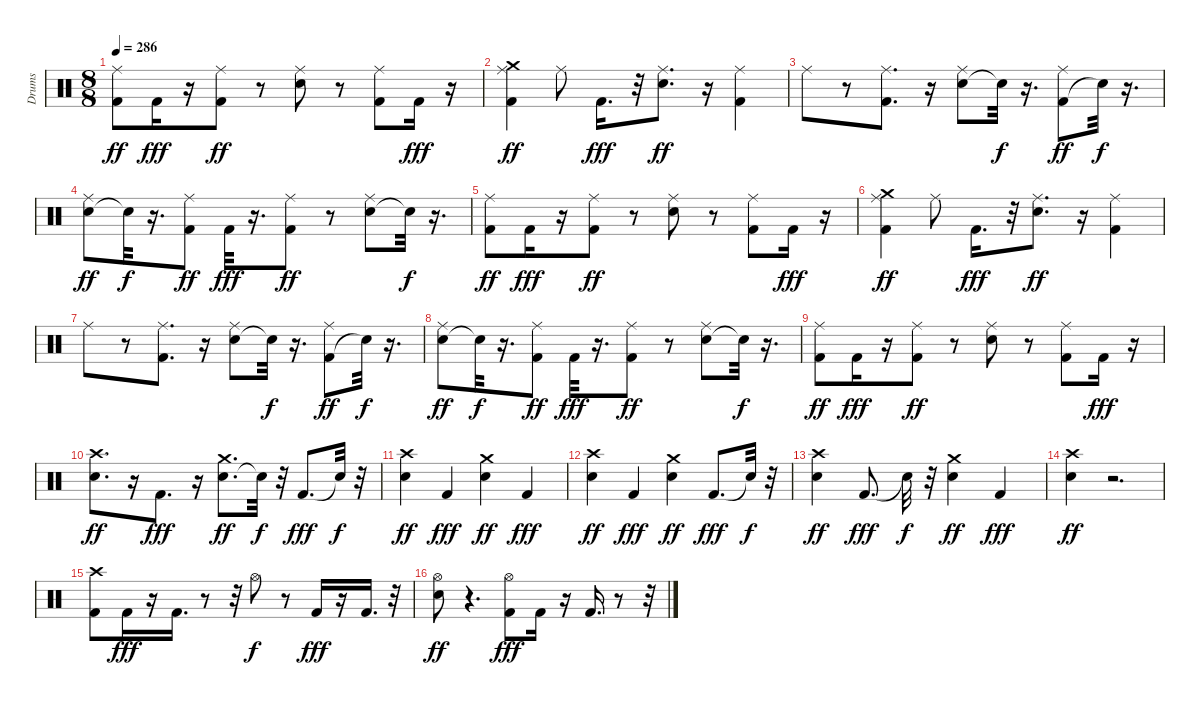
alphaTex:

\track ("Drums" "Drums") {instrument percussion}
\staff {score}
\articulation defaults
\ts (8 8)
\tempo 286
\clef neutral
\ks c
("Kick (hit) 2" "Ride (middle)").8{dy ff} "Kick (hit) 2".16{dy fff} r.16 ("Kick (hit) 2" "Ride (middle)").8{dy ff} r.8 ("Snare (hit) 2" "Ride (middle)").8 r.8 ("Kick (hit) 2" "Ride (middle)").8 "Kick (hit) 2".16{dy fff} r.16 |
("Kick (hit) 2" "Ride (middle)" "Crash medium (hit)").4{dy ff} "Ride (middle)".8 "Kick (hit) 2".16{d dy fff} r.32 ("Snare (hit) 2" "Ride (middle)").8{d dy ff} r.16 ("Kick (hit) 2" "Ride (middle)").4 |
"Ride (middle)".8 r.8 ("Kick (hit) 2" "Ride (middle)").8{d} r.16 ("Snare (hit) 2" "Ride (middle)").8 "Snare (hit)"{t}.32{dy f} r.16{d} ("Kick (hit) 2" "Ride (middle)").8{dy ff} "Snare (hit)"{t}.32{dy f} r.16{d} |
("Snare (hit) 2" "Ride (middle)").8{dy ff} "Snare (hit)"{t}.32{dy f} r.16{d} ("Kick (hit) 2" "Ride (middle)").8{dy ff} "Kick (hit) 2".32{dy fff} r.16{d} ("Kick (hit) 2" "Ride (middle)").8{dy ff} r.8 ("Snare (hit) 2" "Ride (middle)").8 "Snare (hit)"{t}.32{dy f} r.16{d} |
("Kick (hit) 2" "Ride (middle)").8{dy ff} "Kick (hit) 2".16{dy fff} r.16 ("Kick (hit) 2" "Ride (middle)").8{dy ff} r.8 ("Snare (hit) 2" "Ride (middle)").8 r.8 ("Kick (hit) 2" "Ride (middle)").8 "Kick (hit) 2".16{dy fff} r.16 |
("Kick (hit) 2" "Ride (middle)" "Crash medium (hit)").4{dy ff} "Ride (middle)".8 "Kick (hit) 2".16{d dy fff} r.32 ("Snare (hit) 2" "Ride (middle)").8{d dy ff} r.16 ("Kick (hit) 2" "Ride (middle)").4 |
"Ride (middle)".8 r.8 ("Kick (hit) 2" "Ride (middle)").8{d} r.16 ("Snare (hit) 2" "Ride (middle)").8 "Snare (hit)"{t}.32{dy f} r.16{d} ("Kick (hit) 2" "Ride (middle)").8{dy ff} "Snare (hit)"{t}.32{dy f} r.16{d} |
("Snare (hit) 2" "Ride (middle)").8{dy ff} "Snare (hit)"{t}.32{dy f} r.16{d} ("Kick (hit) 2" "Ride (middle)").8{dy ff} "Kick (hit) 2".32{dy fff} r.16{d} ("Kick (hit) 2" "Ride (middle)").8{dy ff} r.8 ("Snare (hit) 2" "Ride (middle)").8 "Snare (hit)"{t}.32{dy f} r.16{d} |
("Kick (hit) 2" "Ride (middle)").8{dy ff} "Kick (hit) 2".16{dy fff} r.16 ("Kick (hit) 2" "Ride (middle)").8{dy ff} r.8 ("Snare (hit) 2" "Ride (middle)").8 r.8 ("Kick (hit) 2" "Ride (middle)").8 "Kick (hit) 2".16{dy fff} r.16 |
("Snare (hit) 2" "Crash high (hit)").8{d dy ff} r.16 "Kick (hit) 2".8{d dy fff} r.16 ("Snare (hit) 2" "Crash medium (hit)").8{d dy ff} "Snare (hit)"{t}.32{dy f} r.32 "Kick (hit) 2".8{d dy fff} "Snare (hit)"{t}.32{dy f} r.32 |
("Snare (hit) 2" "Crash high (hit)").4{dy ff} "Kick (hit) 2".4{dy fff} ("Snare (hit) 2" "Crash medium (hit)").4{dy ff} "Kick (hit) 2".4{dy fff} |
("Snare (hit) 2" "Crash high (hit)").4{dy ff} "Kick (hit) 2".4{dy fff} ("Snare (hit) 2" "Crash medium (hit)").4{dy ff} "Kick (hit) 2".8{d dy fff} "Snare (hit)"{t}.32{dy f} r.32 |
("Snare (hit) 2" "Crash high (hit)").4{dy ff} "Kick (hit) 2".8{d dy fff} "Snare (hit)"{t}.32{dy f} r.32 ("Snare (hit) 2" "Crash medium (hit)").4{dy ff} "Kick (hit) 2".4{dy fff} |
("Snare (hit) 2" "Crash high (hit)").4{dy ff} r.2{d} |
("Kick (hit) 2" "Crash high (hit)").8 "Kick (hit) 2".16{dy fff} r.16 "Kick (hit) 2".16{d} r.8 r.32 "Hi-Hat (open)".8{dy f} r.8 "Kick (hit) 2".16{dy fff} r.16 "Kick (hit) 2".16{d} r.32 |
("Snare (hit) 2" "Hi-Hat (open)").8{dy ff} r.4{d} ("Kick (hit) 2" "Hi-Hat (open)").8{dy fff} "Kick (hit) 2".16 r.16 "Kick (hit) 2".16{d} r.8 r.32
